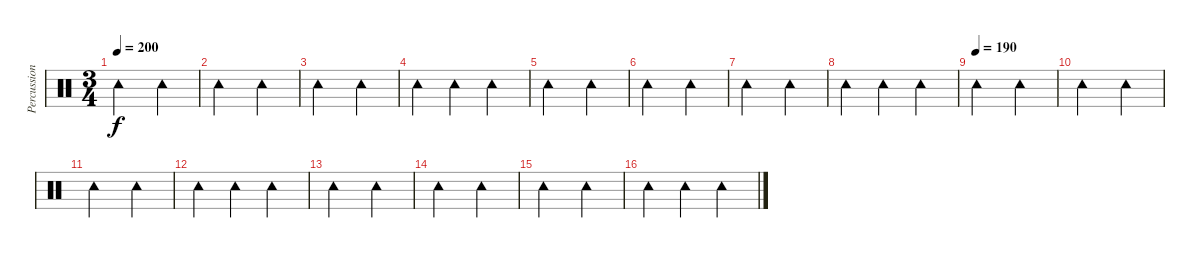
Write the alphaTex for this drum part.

\track ("Percussions" "Percussion") {instrument percussion}
\staff {score}
\articulation defaults
\ts (3 4)
\tempo 200
\clef neutral
\ks c "Tambourine (hit)".2{dy f} "Tambourine (hit)".4
|
"Tambourine (hit)".2 "Tambourine (hit)".4 |
"Tambourine (hit)".2 "Tambourine (hit)".4 |
"Tambourine (hit)".4 "Tambourine (hit)".4 "Tambourine (hit)".4 |
"Tambourine (hit)".2 "Tambourine (hit)".4 |
"Tambourine (hit)".2 "Tambourine (hit)".4 |
"Tambourine (hit)".2 "Tambourine (hit)".4 |
"Tambourine (hit)".4 "Tambourine (hit)".4 "Tambourine (hit)".4 |
\tempo (190)
"Tambourine (hit)".2 "Tambourine (hit)".4 |
"Tambourine (hit)".2 "Tambourine (hit)".4 |
"Tambourine (hit)".2 "Tambourine (hit)".4 |
"Tambourine (hit)".4 "Tambourine (hit)".4 "Tambourine (hit)".4 |
"Tambourine (hit)".2 "Tambourine (hit)".4 |
"Tambourine (hit)".2 "Tambourine (hit)".4 |
"Tambourine (hit)".2 "Tambourine (hit)".4 |
"Tambourine (hit)".4 "Tambourine (hit)".4 "Tambourine (hit)".4
